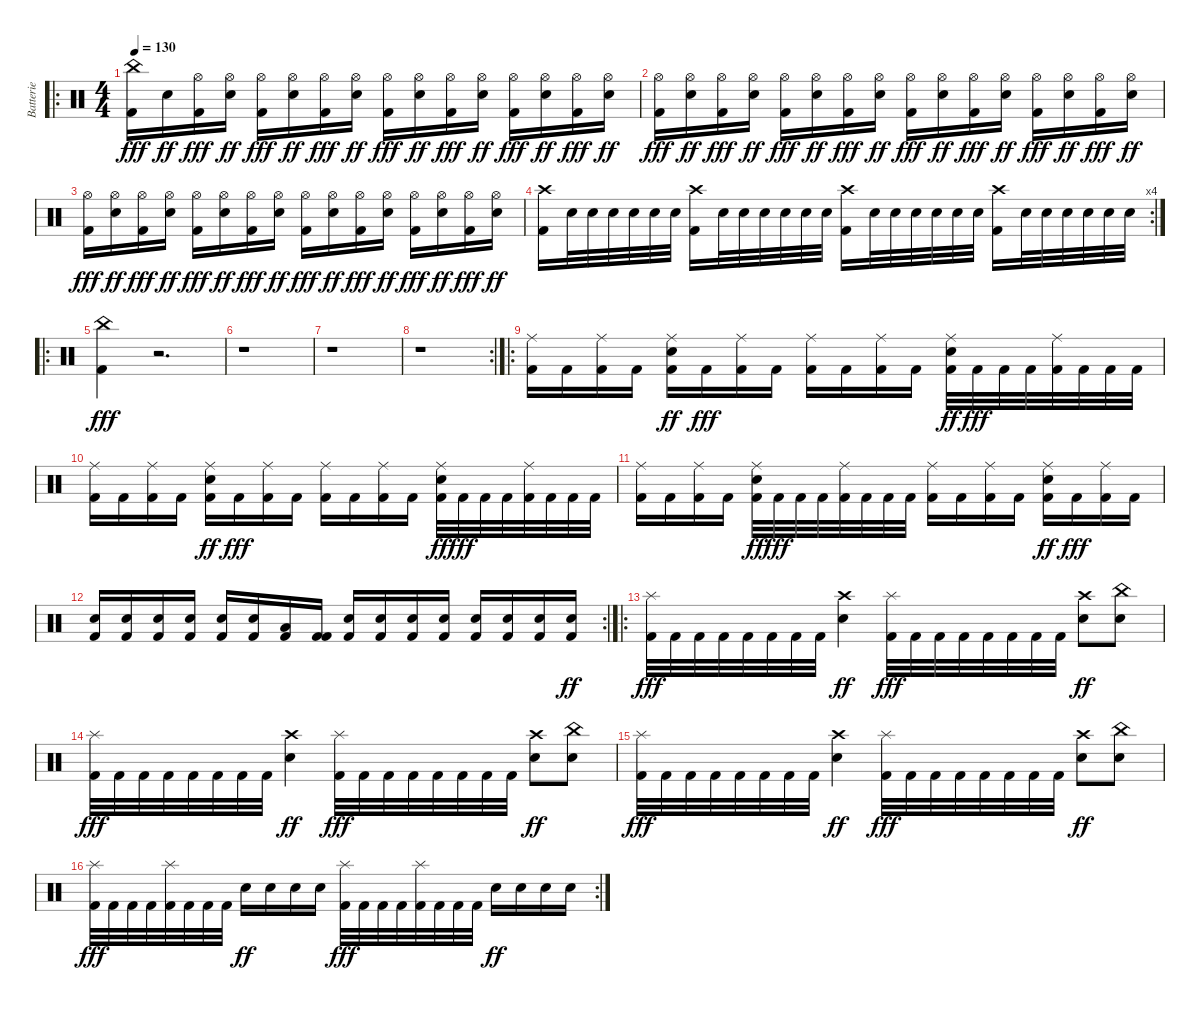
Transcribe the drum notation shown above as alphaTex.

\track ("Batterie" "Batterie") {instrument percussion}
\staff {score}
\articulation defaults
\ro
\ts (4 4)
\tempo 130
\clef neutral
\ks c
("Kick (hit) 2" "China (hit)").16{dy fff} "Snare (hit) 2".16{dy ff} ("Kick (hit) 2" "Hi-Hat (open)").16{dy fff} ("Snare (hit) 2" "Hi-Hat (open)").16{dy ff} ("Kick (hit) 2" "Hi-Hat (open)").16{dy fff} ("Snare (hit) 2" "Hi-Hat (open)").16{dy ff} ("Kick (hit) 2" "Hi-Hat (open)").16{dy fff} ("Snare (hit) 2" "Hi-Hat (open)").16{dy ff} ("Kick (hit) 2" "Hi-Hat (open)").16{dy fff} ("Snare (hit) 2" "Hi-Hat (open)").16{dy ff} ("Kick (hit) 2" "Hi-Hat (open)").16{dy fff} ("Snare (hit) 2" "Hi-Hat (open)").16{dy ff} ("Kick (hit) 2" "Hi-Hat (open)").16{dy fff} ("Snare (hit) 2" "Hi-Hat (open)").16{dy ff} ("Kick (hit) 2" "Hi-Hat (open)").16{dy fff} ("Snare (hit) 2" "Hi-Hat (open)").16{dy ff} |
("Kick (hit) 2" "Hi-Hat (open)").16{dy fff} ("Snare (hit) 2" "Hi-Hat (open)").16{dy ff} ("Kick (hit) 2" "Hi-Hat (open)").16{dy fff} ("Snare (hit) 2" "Hi-Hat (open)").16{dy ff} ("Kick (hit) 2" "Hi-Hat (open)").16{dy fff} ("Snare (hit) 2" "Hi-Hat (open)").16{dy ff} ("Kick (hit) 2" "Hi-Hat (open)").16{dy fff} ("Snare (hit) 2" "Hi-Hat (open)").16{dy ff} ("Kick (hit) 2" "Hi-Hat (open)").16{dy fff} ("Snare (hit) 2" "Hi-Hat (open)").16{dy ff} ("Kick (hit) 2" "Hi-Hat (open)").16{dy fff} ("Snare (hit) 2" "Hi-Hat (open)").16{dy ff} ("Kick (hit) 2" "Hi-Hat (open)").16{dy fff} ("Snare (hit) 2" "Hi-Hat (open)").16{dy ff} ("Kick (hit) 2" "Hi-Hat (open)").16{dy fff} ("Snare (hit) 2" "Hi-Hat (open)").16{dy ff} |
("Kick (hit) 2" "Hi-Hat (open)").16{dy fff} ("Snare (hit) 2" "Hi-Hat (open)").16{dy ff} ("Kick (hit) 2" "Hi-Hat (open)").16{dy fff} ("Snare (hit) 2" "Hi-Hat (open)").16{dy ff} ("Kick (hit) 2" "Hi-Hat (open)").16{dy fff} ("Snare (hit) 2" "Hi-Hat (open)").16{dy ff} ("Kick (hit) 2" "Hi-Hat (open)").16{dy fff} ("Snare (hit) 2" "Hi-Hat (open)").16{dy ff} ("Kick (hit) 2" "Hi-Hat (open)").16{dy fff} ("Snare (hit) 2" "Hi-Hat (open)").16{dy ff} ("Kick (hit) 2" "Hi-Hat (open)").16{dy fff} ("Snare (hit) 2" "Hi-Hat (open)").16{dy ff} ("Kick (hit) 2" "Hi-Hat (open)").16{dy fff} ("Snare (hit) 2" "Hi-Hat (open)").16{dy ff} ("Kick (hit) 2" "Hi-Hat (open)").16{dy fff} ("Snare (hit) 2" "Hi-Hat (open)").16{dy ff} |
\rc 4
("Kick (hit) 2" "Crash high (hit)").16 "Snare (hit) 2".32 "Snare (hit) 2".32 "Snare (hit) 2".32 "Snare (hit) 2".32 "Snare (hit) 2".32 "Snare (hit) 2".32 ("Kick (hit) 2" "Crash high (hit)").16 "Snare (hit) 2".32 "Snare (hit) 2".32 "Snare (hit) 2".32 "Snare (hit) 2".32 "Snare (hit) 2".32 "Snare (hit) 2".32 ("Kick (hit) 2" "Crash high (hit)").16 "Snare (hit) 2".32 "Snare (hit) 2".32 "Snare (hit) 2".32 "Snare (hit) 2".32 "Snare (hit) 2".32 "Snare (hit) 2".32 ("Kick (hit) 2" "Crash high (hit)").16 "Snare (hit) 2".32 "Snare (hit) 2".32 "Snare (hit) 2".32 "Snare (hit) 2".32 "Snare (hit) 2".32 "Snare (hit) 2".32 |
\ro
("Kick (hit) 2" "China (hit)").4{dy fff} r.2{d} |
r.1 |
r.1 |
\rc 2
r.1 |
\ro
("Kick (hit) 2" "Ride (middle)").16 "Kick (hit) 2".16 ("Kick (hit) 2" "Ride (middle)").16 "Kick (hit) 2".16 ("Kick (hit) 2" "Ride (middle)" "Snare (hit) 2").16{dy ff} "Kick (hit) 2".16{dy fff} ("Kick (hit) 2" "Ride (middle)").16 "Kick (hit) 2".16 ("Kick (hit) 2" "Ride (middle)").16 "Kick (hit) 2".16 ("Kick (hit) 2" "Ride (middle)").16 "Kick (hit) 2".16 ("Kick (hit) 2" "Ride (middle)" "Snare (hit) 2").32{dy ff} "Kick (hit) 2".32{dy fff} "Kick (hit) 2".32 "Kick (hit) 2".32 ("Kick (hit) 2" "Ride (middle)").32 "Kick (hit) 2".32 "Kick (hit) 2".32 "Kick (hit) 2".32 |
("Kick (hit) 2" "Ride (middle)").16 "Kick (hit) 2".16 ("Kick (hit) 2" "Ride (middle)").16 "Kick (hit) 2".16 ("Kick (hit) 2" "Ride (middle)" "Snare (hit) 2").16{dy ff} "Kick (hit) 2".16{dy fff} ("Kick (hit) 2" "Ride (middle)").16 "Kick (hit) 2".16 ("Kick (hit) 2" "Ride (middle)").16 "Kick (hit) 2".16 ("Kick (hit) 2" "Ride (middle)").16 "Kick (hit) 2".16 ("Kick (hit) 2" "Ride (middle)" "Snare (hit) 2").32{dy ff} "Kick (hit) 2".32{dy fff} "Kick (hit) 2".32 "Kick (hit) 2".32 ("Kick (hit) 2" "Ride (middle)").32 "Kick (hit) 2".32 "Kick (hit) 2".32 "Kick (hit) 2".32 |
("Kick (hit) 2" "Ride (middle)").16 "Kick (hit) 2".16 ("Kick (hit) 2" "Ride (middle)").16 "Kick (hit) 2".16 ("Kick (hit) 2" "Ride (middle)" "Snare (hit) 2").32{dy ff} "Kick (hit) 2".32{dy fff} "Kick (hit) 2".32 "Kick (hit) 2".32 ("Kick (hit) 2" "Ride (middle)").32 "Kick (hit) 2".32 "Kick (hit) 2".32 "Kick (hit) 2".32 ("Kick (hit) 2" "Ride (middle)").16 "Kick (hit) 2".16 ("Kick (hit) 2" "Ride (middle)").16 "Kick (hit) 2".16 ("Kick (hit) 2" "Ride (middle)" "Snare (hit) 2").16{dy ff} "Kick (hit) 2".16{dy fff} ("Kick (hit) 2" "Ride (middle)").16 "Kick (hit) 2".16 |
\rc 2
("Snare (hit) 2" "Kick (hit) 2").16 ("Snare (hit) 2" "Kick (hit) 2").16 ("Snare (hit) 2" "Kick (hit) 2").16 ("Snare (hit) 2" "Kick (hit) 2").16 ("Snare (hit) 2" "Kick (hit) 2").16 ("Snare (hit) 2" "Kick (hit) 2").16 ("Low Tom (hit)" "Kick (hit) 2").16 ("Kick (hit) 2" "Kick (hit) 2").16 ("Snare (hit) 2" "Kick (hit) 2").16 ("Snare (hit) 2" "Kick (hit) 2").16 ("Snare (hit) 2" "Kick (hit) 2").16 ("Snare (hit) 2" "Kick (hit) 2").16 ("Snare (hit) 2" "Kick (hit) 2").16 ("Snare (hit) 2" "Kick (hit) 2").16 ("Snare (hit) 2" "Kick (hit) 2").16 ("Snare (hit) 2" "Kick (hit) 2").16{dy ff} |
\ro
("Kick (hit) 2" "Splash (hit)").32{dy fff} "Kick (hit) 2".32 "Kick (hit) 2".32 "Kick (hit) 2".32 "Kick (hit) 2".32 "Kick (hit) 2".32 "Kick (hit) 2".32 "Kick (hit) 2".32 ("Snare (hit) 2" "Crash high (hit)").4{dy ff} ("Kick (hit) 2" "Splash (hit)").32{dy fff} "Kick (hit) 2".32 "Kick (hit) 2".32 "Kick (hit) 2".32 "Kick (hit) 2".32 "Kick (hit) 2".32 "Kick (hit) 2".32 "Kick (hit) 2".32 ("Snare (hit) 2" "Crash high (hit)").8{dy ff} ("Snare (hit) 2" "China (hit)").8 |
("Kick (hit) 2" "Splash (hit)").32{dy fff} "Kick (hit) 2".32 "Kick (hit) 2".32 "Kick (hit) 2".32 "Kick (hit) 2".32 "Kick (hit) 2".32 "Kick (hit) 2".32 "Kick (hit) 2".32 ("Snare (hit) 2" "Crash high (hit)").4{dy ff} ("Kick (hit) 2" "Splash (hit)").32{dy fff} "Kick (hit) 2".32 "Kick (hit) 2".32 "Kick (hit) 2".32 "Kick (hit) 2".32 "Kick (hit) 2".32 "Kick (hit) 2".32 "Kick (hit) 2".32 ("Snare (hit) 2" "Crash high (hit)").8{dy ff} ("Snare (hit) 2" "China (hit)").8 |
("Kick (hit) 2" "Splash (hit)").32{dy fff} "Kick (hit) 2".32 "Kick (hit) 2".32 "Kick (hit) 2".32 "Kick (hit) 2".32 "Kick (hit) 2".32 "Kick (hit) 2".32 "Kick (hit) 2".32 ("Snare (hit) 2" "Crash high (hit)").4{dy ff} ("Kick (hit) 2" "Splash (hit)").32{dy fff} "Kick (hit) 2".32 "Kick (hit) 2".32 "Kick (hit) 2".32 "Kick (hit) 2".32 "Kick (hit) 2".32 "Kick (hit) 2".32 "Kick (hit) 2".32 ("Snare (hit) 2" "Crash high (hit)").8{dy ff} ("Snare (hit) 2" "China (hit)").8 |
\rc 2
("Kick (hit) 2" "Splash (hit)").32{dy fff} "Kick (hit) 2".32 "Kick (hit) 2".32 "Kick (hit) 2".32 ("Kick (hit) 2" "Splash (hit)").32 "Kick (hit) 2".32 "Kick (hit) 2".32 "Kick (hit) 2".32 "Snare (hit) 2".16{dy ff} "Snare (hit) 2".16 "Snare (hit) 2".16 "Snare (hit) 2".16 ("Kick (hit) 2" "Splash (hit)").32{dy fff} "Kick (hit) 2".32 "Kick (hit) 2".32 "Kick (hit) 2".32 ("Kick (hit) 2" "Splash (hit)").32 "Kick (hit) 2".32 "Kick (hit) 2".32 "Kick (hit) 2".32 "Snare (hit) 2".16{dy ff} "Snare (hit) 2".16 "Snare (hit) 2".16 "Snare (hit) 2".16
